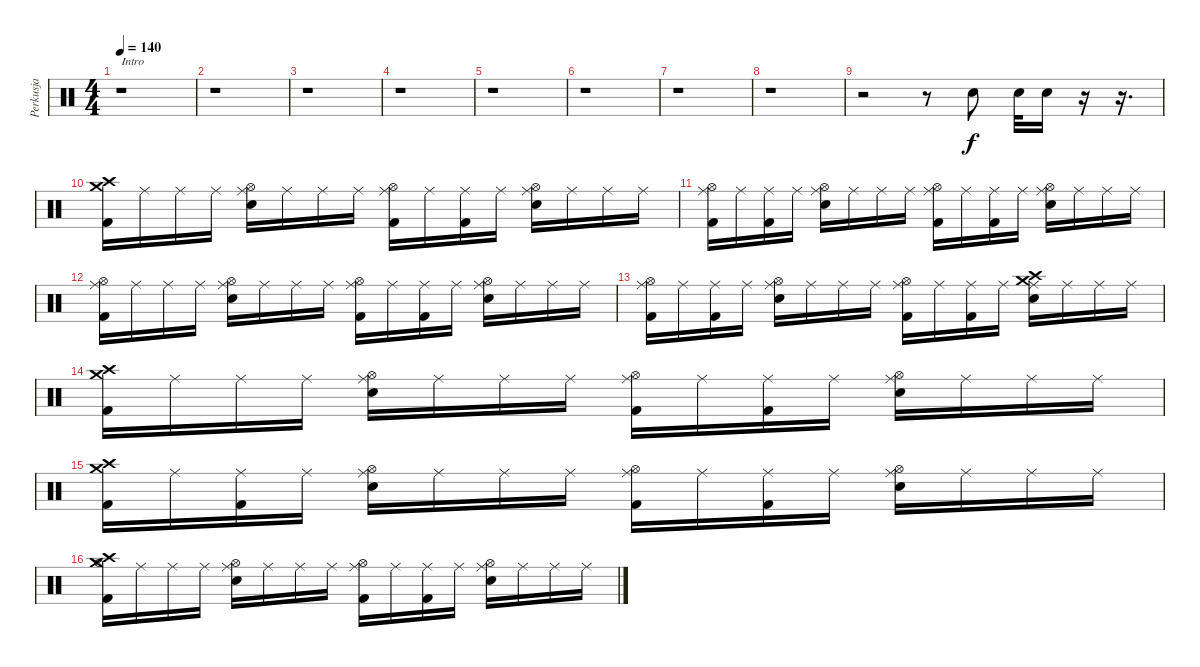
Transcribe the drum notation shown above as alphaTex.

\track ("Perkusja" "Perkusja") {instrument percussion}
\staff {score}
\articulation defaults
\ts (4 4)
\tempo 140
\clef neutral
\ks c
r.1{txt "Intro" dy f} |
r.1 |
r.1 |
r.1 |
r.1 |
r.1 |
r.1 |
r.1 |
r.2 r.8 "Snare (hit) 2".8 "Snare (hit) 2".32 "Snare (hit) 2".16 r.16 r.16{d} |
("Crash medium (hit)" "Crash high (hit)" "Kick (hit) 2").16 "Ride (middle)".16 "Ride (middle)".16 "Ride (middle)".16 ("Ride (middle)" "Hi-Hat (open)" "Snare (hit) 2").16 "Ride (middle)".16 "Ride (middle)".16 "Ride (middle)".16 ("Ride (middle)" "Hi-Hat (open)" "Kick (hit) 2").16 "Ride (middle)".16 ("Ride (middle)" "Kick (hit) 2").16 "Ride (middle)".16 ("Ride (middle)" "Hi-Hat (open)" "Snare (hit) 2").16 "Ride (middle)".16 "Ride (middle)".16 "Ride (middle)".16 |
("Ride (middle)" "Hi-Hat (open)" "Kick (hit) 2").16 "Ride (middle)".16 ("Ride (middle)" "Kick (hit) 2").16 "Ride (middle)".16 ("Ride (middle)" "Hi-Hat (open)" "Snare (hit) 2").16 "Ride (middle)".16 "Ride (middle)".16 "Ride (middle)".16 ("Ride (middle)" "Hi-Hat (open)" "Kick (hit) 2").16 "Ride (middle)".16 ("Ride (middle)" "Kick (hit) 2").16 "Ride (middle)".16 ("Ride (middle)" "Hi-Hat (open)" "Snare (hit) 2").16 "Ride (middle)".16 "Ride (middle)".16 "Ride (middle)".16 |
("Ride (middle)" "Hi-Hat (open)" "Kick (hit) 2").16 "Ride (middle)".16 "Ride (middle)".16 "Ride (middle)".16 ("Ride (middle)" "Hi-Hat (open)" "Snare (hit) 2").16 "Ride (middle)".16 "Ride (middle)".16 "Ride (middle)".16 ("Ride (middle)" "Hi-Hat (open)" "Kick (hit) 2").16 "Ride (middle)".16 ("Ride (middle)" "Kick (hit) 2").16 "Ride (middle)".16 ("Ride (middle)" "Hi-Hat (open)" "Snare (hit) 2").16 "Ride (middle)".16 "Ride (middle)".16 "Ride (middle)".16 |
("Ride (middle)" "Hi-Hat (open)" "Kick (hit) 2").16 "Ride (middle)".16 ("Ride (middle)" "Kick (hit) 2").16 "Ride (middle)".16 ("Ride (middle)" "Hi-Hat (open)" "Snare (hit) 2").16 "Ride (middle)".16 "Ride (middle)".16 "Ride (middle)".16 ("Ride (middle)" "Hi-Hat (open)" "Kick (hit) 2").16 "Ride (middle)".16 ("Ride (middle)" "Kick (hit) 2").16 "Ride (middle)".16 ("Crash medium (hit)" "Crash high (hit)" "Ride (middle)" "Snare (hit) 2").16 "Ride (middle)".16 "Ride (middle)".16 "Ride (middle)".16 |
("Crash medium (hit)" "Crash high (hit)" "Kick (hit) 2").16 "Ride (middle)".16 "Ride (middle)".16 "Ride (middle)".16 ("Ride (middle)" "Hi-Hat (open)" "Snare (hit) 2").16 "Ride (middle)".16 "Ride (middle)".16 "Ride (middle)".16 ("Ride (middle)" "Hi-Hat (open)" "Kick (hit) 2").16 "Ride (middle)".16 ("Ride (middle)" "Kick (hit) 2").16 "Ride (middle)".16 ("Ride (middle)" "Hi-Hat (open)" "Snare (hit) 2").16 "Ride (middle)".16 "Ride (middle)".16 "Ride (middle)".16 |
("Crash medium (hit)" "Crash high (hit)" "Kick (hit) 2").16 "Ride (middle)".16 ("Ride (middle)" "Kick (hit) 2").16 "Ride (middle)".16 ("Ride (middle)" "Hi-Hat (open)" "Snare (hit) 2").16 "Ride (middle)".16 "Ride (middle)".16 "Ride (middle)".16 ("Ride (middle)" "Hi-Hat (open)" "Kick (hit) 2").16 "Ride (middle)".16 ("Ride (middle)" "Kick (hit) 2").16 "Ride (middle)".16 ("Ride (middle)" "Hi-Hat (open)" "Snare (hit) 2").16 "Ride (middle)".16 "Ride (middle)".16 "Ride (middle)".16 |
("Crash medium (hit)" "Crash high (hit)" "Hi-Hat (open)" "Kick (hit) 2").16 "Ride (middle)".16 "Ride (middle)".16 "Ride (middle)".16 ("Ride (middle)" "Hi-Hat (open)" "Snare (hit) 2").16 "Ride (middle)".16 "Ride (middle)".16 "Ride (middle)".16 ("Ride (middle)" "Hi-Hat (open)" "Kick (hit) 2").16 "Ride (middle)".16 ("Ride (middle)" "Kick (hit) 2").16 "Ride (middle)".16 ("Ride (middle)" "Hi-Hat (open)" "Snare (hit) 2").16 "Ride (middle)".16 "Ride (middle)".16 "Ride (middle)".16
